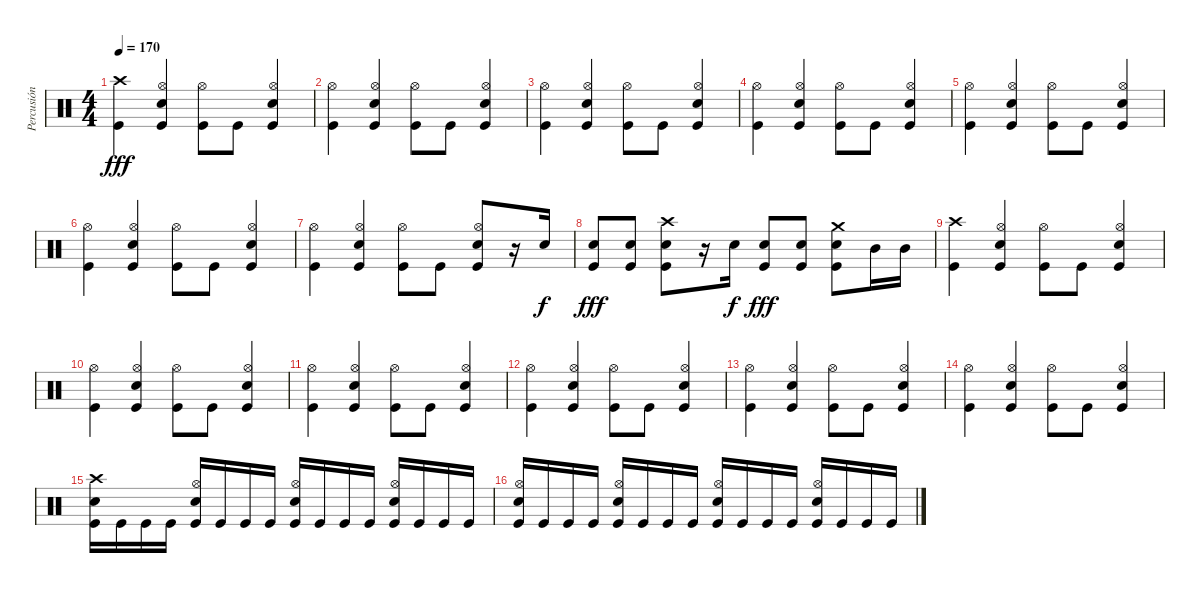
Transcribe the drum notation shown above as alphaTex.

\track ("Percusión" "Percusión") {instrument percussion}
\staff {score}
\articulation defaults
\ts (4 4)
\tempo 170
\clef neutral
\ks c
("Crash high (hit)" "Kick (hit)").4{dy fff} ("Hi-Hat (open)" "Electric Snare (hit)" "Kick (hit)").4 ("Hi-Hat (open)" "Kick (hit)").8 "Kick (hit)".8 ("Hi-Hat (open)" "Electric Snare (hit)" "Kick (hit)").4 |
("Hi-Hat (open)" "Kick (hit)").4 ("Hi-Hat (open)" "Electric Snare (hit)" "Kick (hit)").4 ("Hi-Hat (open)" "Kick (hit)").8 "Kick (hit)".8 ("Hi-Hat (open)" "Electric Snare (hit)" "Kick (hit)").4 |
("Hi-Hat (open)" "Kick (hit)").4 ("Hi-Hat (open)" "Electric Snare (hit)" "Kick (hit)").4 ("Hi-Hat (open)" "Kick (hit)").8 "Kick (hit)".8 ("Hi-Hat (open)" "Electric Snare (hit)" "Kick (hit)").4 |
("Hi-Hat (open)" "Kick (hit)").4 ("Hi-Hat (open)" "Electric Snare (hit)" "Kick (hit)").4 ("Hi-Hat (open)" "Kick (hit)").8 "Kick (hit)".8 ("Hi-Hat (open)" "Electric Snare (hit)" "Kick (hit)").4 |
("Hi-Hat (open)" "Kick (hit)").4 ("Hi-Hat (open)" "Electric Snare (hit)" "Kick (hit)").4 ("Hi-Hat (open)" "Kick (hit)").8 "Kick (hit)".8 ("Hi-Hat (open)" "Electric Snare (hit)" "Kick (hit)").4 |
("Hi-Hat (open)" "Kick (hit)").4 ("Hi-Hat (open)" "Electric Snare (hit)" "Kick (hit)").4 ("Hi-Hat (open)" "Kick (hit)").8 "Kick (hit)".8 ("Hi-Hat (open)" "Electric Snare (hit)" "Kick (hit)").4 |
("Hi-Hat (open)" "Kick (hit)").4 ("Hi-Hat (open)" "Electric Snare (hit)" "Kick (hit)").4 ("Hi-Hat (open)" "Kick (hit)").8 "Kick (hit)".8 ("Hi-Hat (open)" "Electric Snare (hit)" "Kick (hit)").8 r.16 "Electric Snare (hit)".16{dy f} |
("Electric Snare (hit)" "Kick (hit)").8{dy fff} ("Electric Snare (hit)" "Kick (hit)").8 ("Crash high (hit)" "Electric Snare (hit)" "Kick (hit)").8 r.16 "Electric Snare (hit)".16{dy f} ("Electric Snare (hit)" "Kick (hit)").8{dy fff} ("Electric Snare (hit)" "Kick (hit)").8 ("Crash medium (hit)" "Electric Snare (hit)" "Kick (hit)").8 "Mid Tom (hit)".16 "Mid Tom (hit)".16 |
("Crash high (hit)" "Kick (hit)").4 ("Hi-Hat (open)" "Electric Snare (hit)" "Kick (hit)").4 ("Hi-Hat (open)" "Kick (hit)").8 "Kick (hit)".8 ("Hi-Hat (open)" "Electric Snare (hit)" "Kick (hit)").4 |
("Hi-Hat (open)" "Kick (hit)").4 ("Hi-Hat (open)" "Electric Snare (hit)" "Kick (hit)").4 ("Hi-Hat (open)" "Kick (hit)").8 "Kick (hit)".8 ("Hi-Hat (open)" "Electric Snare (hit)" "Kick (hit)").4 |
("Hi-Hat (open)" "Kick (hit)").4 ("Hi-Hat (open)" "Electric Snare (hit)" "Kick (hit)").4 ("Hi-Hat (open)" "Kick (hit)").8 "Kick (hit)".8 ("Hi-Hat (open)" "Electric Snare (hit)" "Kick (hit)").4 |
("Hi-Hat (open)" "Kick (hit)").4 ("Hi-Hat (open)" "Electric Snare (hit)" "Kick (hit)").4 ("Hi-Hat (open)" "Kick (hit)").8 "Kick (hit)".8 ("Hi-Hat (open)" "Electric Snare (hit)" "Kick (hit)").4 |
("Hi-Hat (open)" "Kick (hit)").4 ("Hi-Hat (open)" "Electric Snare (hit)" "Kick (hit)").4 ("Hi-Hat (open)" "Kick (hit)").8 "Kick (hit)".8 ("Hi-Hat (open)" "Electric Snare (hit)" "Kick (hit)").4 |
("Hi-Hat (open)" "Kick (hit)").4 ("Hi-Hat (open)" "Electric Snare (hit)" "Kick (hit)").4 ("Hi-Hat (open)" "Kick (hit)").8 "Kick (hit)".8 ("Hi-Hat (open)" "Electric Snare (hit)" "Kick (hit)").4 |
("Crash high (hit)" "Electric Snare (hit)" "Kick (hit)").16 "Kick (hit)".16 "Kick (hit)".16 "Kick (hit)".16 ("Hi-Hat (open)" "Electric Snare (hit)" "Kick (hit)").16 "Kick (hit)".16 "Kick (hit)".16 "Kick (hit)".16 ("Hi-Hat (open)" "Electric Snare (hit)" "Kick (hit)").16 "Kick (hit)".16 "Kick (hit)".16 "Kick (hit)".16 ("Hi-Hat (open)" "Electric Snare (hit)" "Kick (hit)").16 "Kick (hit)".16 "Kick (hit)".16 "Kick (hit)".16 |
("Hi-Hat (open)" "Electric Snare (hit)" "Kick (hit)").16 "Kick (hit)".16 "Kick (hit)".16 "Kick (hit)".16 ("Hi-Hat (open)" "Electric Snare (hit)" "Kick (hit)").16 "Kick (hit)".16 "Kick (hit)".16 "Kick (hit)".16 ("Hi-Hat (open)" "Electric Snare (hit)" "Kick (hit)").16 "Kick (hit)".16 "Kick (hit)".16 "Kick (hit)".16 ("Hi-Hat (open)" "Electric Snare (hit)" "Kick (hit)").16 "Kick (hit)".16 "Kick (hit)".16 "Kick (hit)".16
